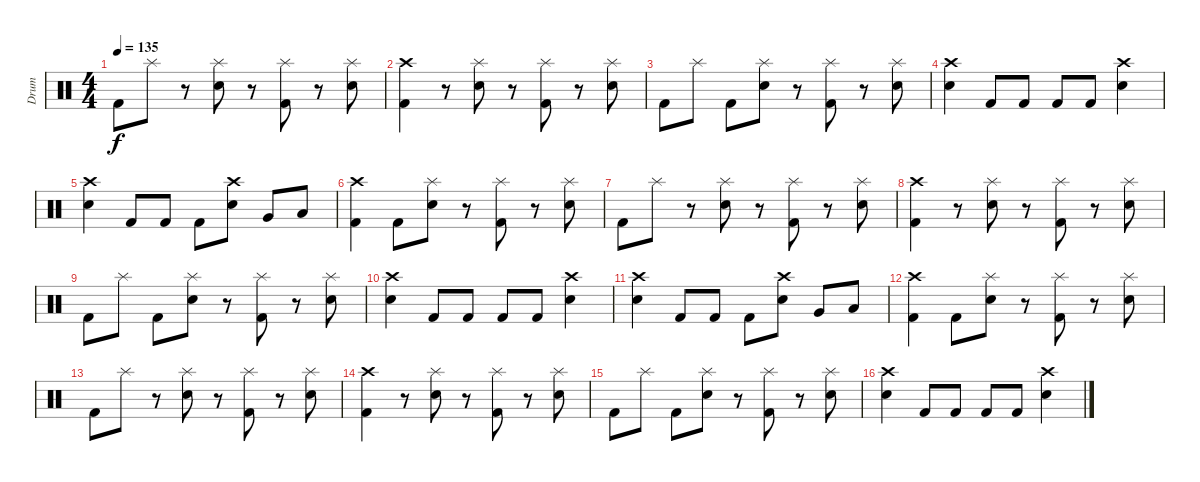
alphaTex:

\track ("Drum" "Drum") {instrument percussion}
\staff {score}
\articulation defaults
\ts (4 4)
\tempo 135
\clef neutral
\ks c "Kick (hit) 2".8{dy f} "Splash (hit)".8
r.8 ("Splash (hit)" "Electric Snare (hit)").8 r.8 ("Splash (hit)" "Kick (hit) 2").8 r.8 ("Splash (hit)" "Electric Snare (hit)").8 |
("Crash high (hit)" "Kick (hit) 2").4 r.8 ("Splash (hit)" "Electric Snare (hit)").8 r.8 ("Splash (hit)" "Kick (hit) 2").8 r.8 ("Splash (hit)" "Electric Snare (hit)").8 |
"Kick (hit) 2".8 "Splash (hit)".8 "Kick (hit) 2".8 ("Splash (hit)" "Electric Snare (hit)").8 r.8 ("Splash (hit)" "Kick (hit) 2").8 r.8 ("Splash (hit)" "Electric Snare (hit)").8 |
("Crash high (hit)" "Electric Snare (hit)").4 "Kick (hit) 2".8 "Kick (hit) 2".8 "Kick (hit) 2".8 "Kick (hit) 2".8 ("Crash high (hit)" "Electric Snare (hit)").4 |
("Crash high (hit)" "Electric Snare (hit)").4 "Kick (hit) 2".8 "Kick (hit) 2".8 "Kick (hit) 2".8 ("Crash high (hit)" "Electric Snare (hit)").8 "Very Low Tom (hit)".8 "Low Floor Tom (hit)".8 |
("Crash high (hit)" "Kick (hit) 2").4 "Kick (hit) 2".8 ("Splash (hit)" "Electric Snare (hit)").8 r.8 ("Splash (hit)" "Kick (hit) 2").8 r.8 ("Splash (hit)" "Electric Snare (hit)").8 |
"Kick (hit) 2".8 "Splash (hit)".8 r.8 ("Splash (hit)" "Electric Snare (hit)").8 r.8 ("Splash (hit)" "Kick (hit) 2").8 r.8 ("Splash (hit)" "Electric Snare (hit)").8 |
("Crash high (hit)" "Kick (hit) 2").4 r.8 ("Splash (hit)" "Electric Snare (hit)").8 r.8 ("Splash (hit)" "Kick (hit) 2").8 r.8 ("Splash (hit)" "Electric Snare (hit)").8 |
"Kick (hit) 2".8 "Splash (hit)".8 "Kick (hit) 2".8 ("Splash (hit)" "Electric Snare (hit)").8 r.8 ("Splash (hit)" "Kick (hit) 2").8 r.8 ("Splash (hit)" "Electric Snare (hit)").8 |
("Crash high (hit)" "Electric Snare (hit)").4 "Kick (hit) 2".8 "Kick (hit) 2".8 "Kick (hit) 2".8 "Kick (hit) 2".8 ("Crash high (hit)" "Electric Snare (hit)").4 |
("Crash high (hit)" "Electric Snare (hit)").4 "Kick (hit) 2".8 "Kick (hit) 2".8 "Kick (hit) 2".8 ("Crash high (hit)" "Electric Snare (hit)").8 "Very Low Tom (hit)".8 "Low Floor Tom (hit)".8 |
("Crash high (hit)" "Kick (hit) 2").4 "Kick (hit) 2".8 ("Splash (hit)" "Electric Snare (hit)").8 r.8 ("Splash (hit)" "Kick (hit) 2").8 r.8 ("Splash (hit)" "Electric Snare (hit)").8 |
"Kick (hit) 2".8 "Splash (hit)".8 r.8 ("Splash (hit)" "Electric Snare (hit)").8 r.8 ("Splash (hit)" "Kick (hit) 2").8 r.8 ("Splash (hit)" "Electric Snare (hit)").8 |
("Crash high (hit)" "Kick (hit) 2").4 r.8 ("Splash (hit)" "Electric Snare (hit)").8 r.8 ("Splash (hit)" "Kick (hit) 2").8 r.8 ("Splash (hit)" "Electric Snare (hit)").8 |
"Kick (hit) 2".8 "Splash (hit)".8 "Kick (hit) 2".8 ("Splash (hit)" "Electric Snare (hit)").8 r.8 ("Splash (hit)" "Kick (hit) 2").8 r.8 ("Splash (hit)" "Electric Snare (hit)").8 |
("Crash high (hit)" "Electric Snare (hit)").4 "Kick (hit) 2".8 "Kick (hit) 2".8 "Kick (hit) 2".8 "Kick (hit) 2".8 ("Crash high (hit)" "Electric Snare (hit)").4
